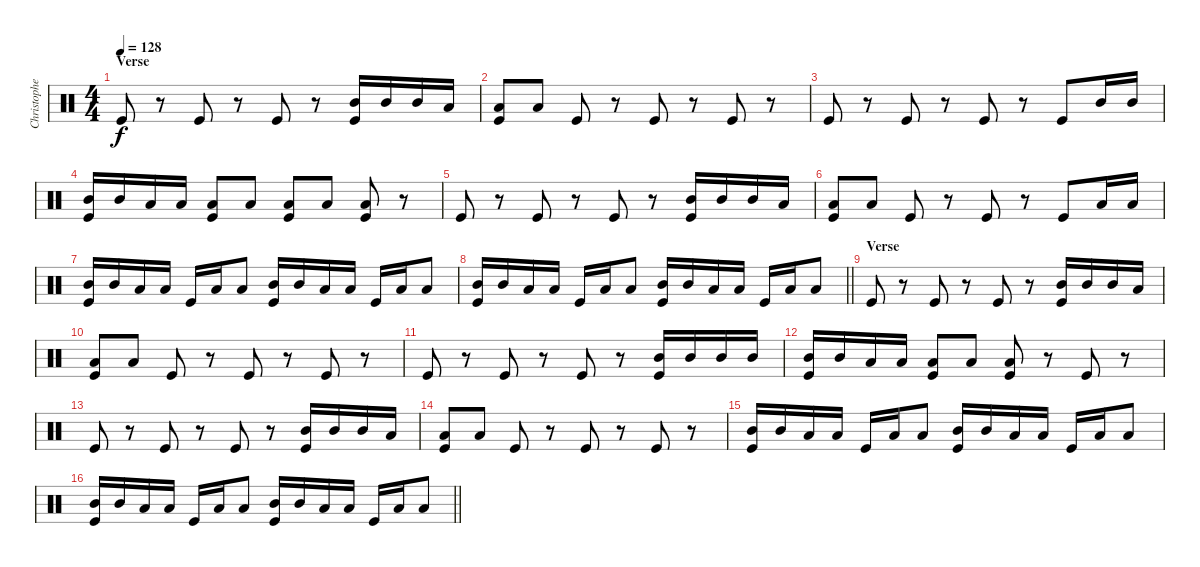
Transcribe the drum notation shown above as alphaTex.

\track ("Christopher - Drums" "Christophe") {instrument percussion}
\staff {score}
\articulation defaults
\ts (4 4)
\section ("" "Verse")
\tempo 128
\clef neutral
\ks c "Kick (hit)".8{dy f}
r.8 "Kick (hit)".8 r.8 "Kick (hit)".8 r.8 ("Mid Tom (hit)" "Kick (hit)").16 "Mid Tom (hit)".16 "Mid Tom (hit)".16 "Low Tom (hit)".16 |
("Low Floor Tom (hit)" "Kick (hit)").8 "Low Floor Tom (hit)".8 "Kick (hit)".8 r.8 "Kick (hit)".8 r.8 "Kick (hit)".8 r.8 |
"Kick (hit)".8 r.8 "Kick (hit)".8 r.8 "Kick (hit)".8 r.8 "Kick (hit)".8 "Mid Tom (hit)".16 "Mid Tom (hit)".16 |
("Mid Tom (hit)" "Kick (hit)").16 "Mid Tom (hit)".16 "Low Tom (hit)".16 "Low Tom (hit)".16 ("Low Floor Tom (hit)" "Kick (hit)").8 "Low Floor Tom (hit)".8 ("Low Floor Tom (hit)" "Kick (hit)").8 "Low Floor Tom (hit)".8 ("Low Floor Tom (hit)" "Kick (hit)").8 r.8 |
"Kick (hit)".8 r.8 "Kick (hit)".8 r.8 "Kick (hit)".8 r.8 ("Mid Tom (hit)" "Kick (hit)").16 "Mid Tom (hit)".16 "Mid Tom (hit)".16 "Low Tom (hit)".16 |
("Low Floor Tom (hit)" "Kick (hit)").8 "Low Floor Tom (hit)".8 "Kick (hit)".8 r.8 "Kick (hit)".8 r.8 "Kick (hit)".8 "Low Tom (hit)".16 "Low Tom (hit)".16 |
("Mid Tom (hit)" "Kick (hit)").16 "Mid Tom (hit)".16 "Low Tom (hit)".16 "Low Floor Tom (hit)".16 "Kick (hit)".16 "Low Tom (hit)".16 "Low Floor Tom (hit)".8 ("Mid Tom (hit)" "Kick (hit)").16 "Mid Tom (hit)".16 "Low Tom (hit)".16 "Low Floor Tom (hit)".16 "Kick (hit)".16 "Low Tom (hit)".16 "Low Floor Tom (hit)".8 |
\barLineRight lightlight
("Mid Tom (hit)" "Kick (hit)").16 "Mid Tom (hit)".16 "Low Tom (hit)".16 "Low Floor Tom (hit)".16 "Kick (hit)".16 "Low Tom (hit)".16 "Low Floor Tom (hit)".8 ("Mid Tom (hit)" "Kick (hit)").16 "Mid Tom (hit)".16 "Low Tom (hit)".16 "Low Floor Tom (hit)".16 "Kick (hit)".16 "Low Tom (hit)".16 "Low Floor Tom (hit)".8 |
\section ("" "Verse")
"Kick (hit)".8 r.8 "Kick (hit)".8 r.8 "Kick (hit)".8 r.8 ("Mid Tom (hit)" "Kick (hit)").16 "Mid Tom (hit)".16 "Mid Tom (hit)".16 "Low Tom (hit)".16 |
("Low Floor Tom (hit)" "Kick (hit)").8 "Low Floor Tom (hit)".8 "Kick (hit)".8 r.8 "Kick (hit)".8 r.8 "Kick (hit)".8 r.8 |
"Kick (hit)".8 r.8 "Kick (hit)".8 r.8 "Kick (hit)".8 r.8 ("Mid Tom (hit)" "Kick (hit)").16 "Mid Tom (hit)".16 "Mid Tom (hit)".16 "Mid Tom (hit)".16 |
("Mid Tom (hit)" "Kick (hit)").16 "Mid Tom (hit)".16 "Low Tom (hit)".16 "Low Tom (hit)".16 ("Low Floor Tom (hit)" "Kick (hit)").8 "Low Floor Tom (hit)".8 ("Low Floor Tom (hit)" "Kick (hit)").8 r.8 "Kick (hit)".8 r.8 |
"Kick (hit)".8 r.8 "Kick (hit)".8 r.8 "Kick (hit)".8 r.8 ("Mid Tom (hit)" "Kick (hit)").16 "Mid Tom (hit)".16 "Mid Tom (hit)".16 "Low Tom (hit)".16 |
("Low Floor Tom (hit)" "Kick (hit)").8 "Low Floor Tom (hit)".8 "Kick (hit)".8 r.8 "Kick (hit)".8 r.8 "Kick (hit)".8 r.8 |
("Mid Tom (hit)" "Kick (hit)").16 "Mid Tom (hit)".16 "Low Tom (hit)".16 "Low Floor Tom (hit)".16 "Kick (hit)".16 "Low Tom (hit)".16 "Low Floor Tom (hit)".8 ("Mid Tom (hit)" "Kick (hit)").16 "Mid Tom (hit)".16 "Low Tom (hit)".16 "Low Floor Tom (hit)".16 "Kick (hit)".16 "Low Tom (hit)".16 "Low Floor Tom (hit)".8 |
\barLineRight lightlight
("Mid Tom (hit)" "Kick (hit)").16 "Mid Tom (hit)".16 "Low Tom (hit)".16 "Low Floor Tom (hit)".16 "Kick (hit)".16 "Low Tom (hit)".16 "Low Floor Tom (hit)".8 ("Mid Tom (hit)" "Kick (hit)").16 "Mid Tom (hit)".16 "Low Tom (hit)".16 "Low Floor Tom (hit)".16 "Kick (hit)".16 "Low Tom (hit)".16 "Low Floor Tom (hit)".8
